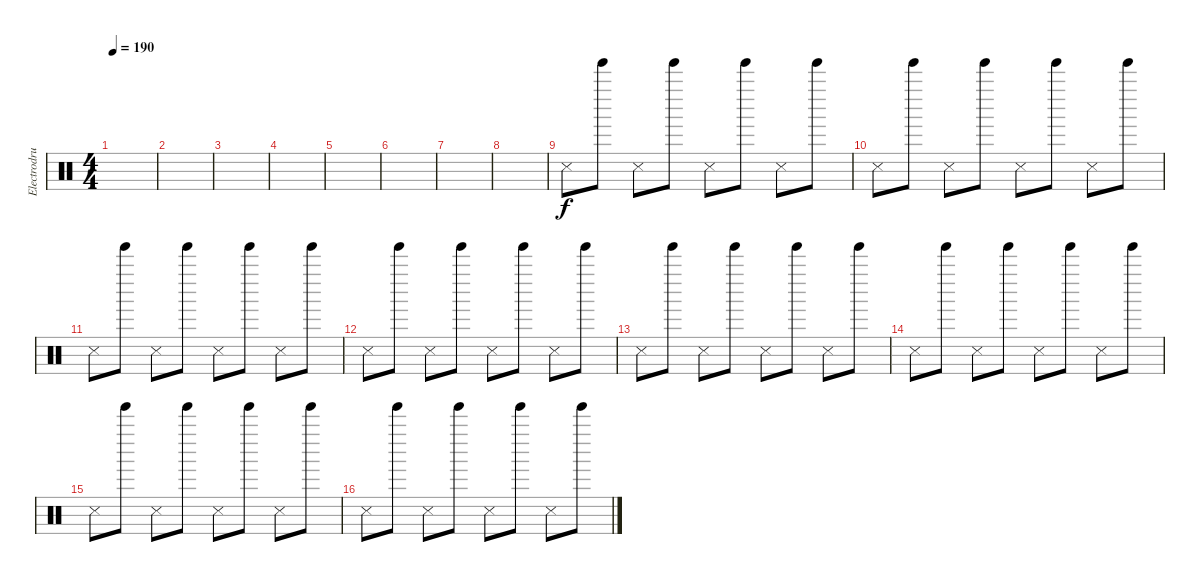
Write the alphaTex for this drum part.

\track ("Electrodrums2" "Electrodru") {instrument percussion}
\staff {score}
\articulation defaults
\ts (4 4)
\tempo 190
\clef neutral
\ks c
|
|
|
|
|
|
|
|
"Snare (side stick) 3".8 "Tinkle Bell (hit)".8 "Snare (side stick) 3".8 "Tinkle Bell (hit)".8 "Snare (side stick) 3".8 "Tinkle Bell (hit)".8 "Snare (side stick) 3".8 "Tinkle Bell (hit)".8 |
"Snare (side stick) 3".8 "Tinkle Bell (hit)".8 "Snare (side stick) 3".8 "Tinkle Bell (hit)".8 "Snare (side stick) 3".8 "Tinkle Bell (hit)".8 "Snare (side stick) 3".8 "Tinkle Bell (hit)".8 |
"Snare (side stick) 3".8 "Tinkle Bell (hit)".8 "Snare (side stick) 3".8 "Tinkle Bell (hit)".8 "Snare (side stick) 3".8 "Tinkle Bell (hit)".8 "Snare (side stick) 3".8 "Tinkle Bell (hit)".8 |
"Snare (side stick) 3".8 "Tinkle Bell (hit)".8 "Snare (side stick) 3".8 "Tinkle Bell (hit)".8 "Snare (side stick) 3".8 "Tinkle Bell (hit)".8 "Snare (side stick) 3".8 "Tinkle Bell (hit)".8 |
"Snare (side stick) 3".8 "Tinkle Bell (hit)".8 "Snare (side stick) 3".8 "Tinkle Bell (hit)".8 "Snare (side stick) 3".8 "Tinkle Bell (hit)".8 "Snare (side stick) 3".8 "Tinkle Bell (hit)".8 |
"Snare (side stick) 3".8 "Tinkle Bell (hit)".8 "Snare (side stick) 3".8 "Tinkle Bell (hit)".8 "Snare (side stick) 3".8 "Tinkle Bell (hit)".8 "Snare (side stick) 3".8 "Tinkle Bell (hit)".8 |
"Snare (side stick) 3".8 "Tinkle Bell (hit)".8 "Snare (side stick) 3".8 "Tinkle Bell (hit)".8 "Snare (side stick) 3".8 "Tinkle Bell (hit)".8 "Snare (side stick) 3".8 "Tinkle Bell (hit)".8 |
"Snare (side stick) 3".8 "Tinkle Bell (hit)".8 "Snare (side stick) 3".8 "Tinkle Bell (hit)".8 "Snare (side stick) 3".8 "Tinkle Bell (hit)".8 "Snare (side stick) 3".8 "Tinkle Bell (hit)".8
